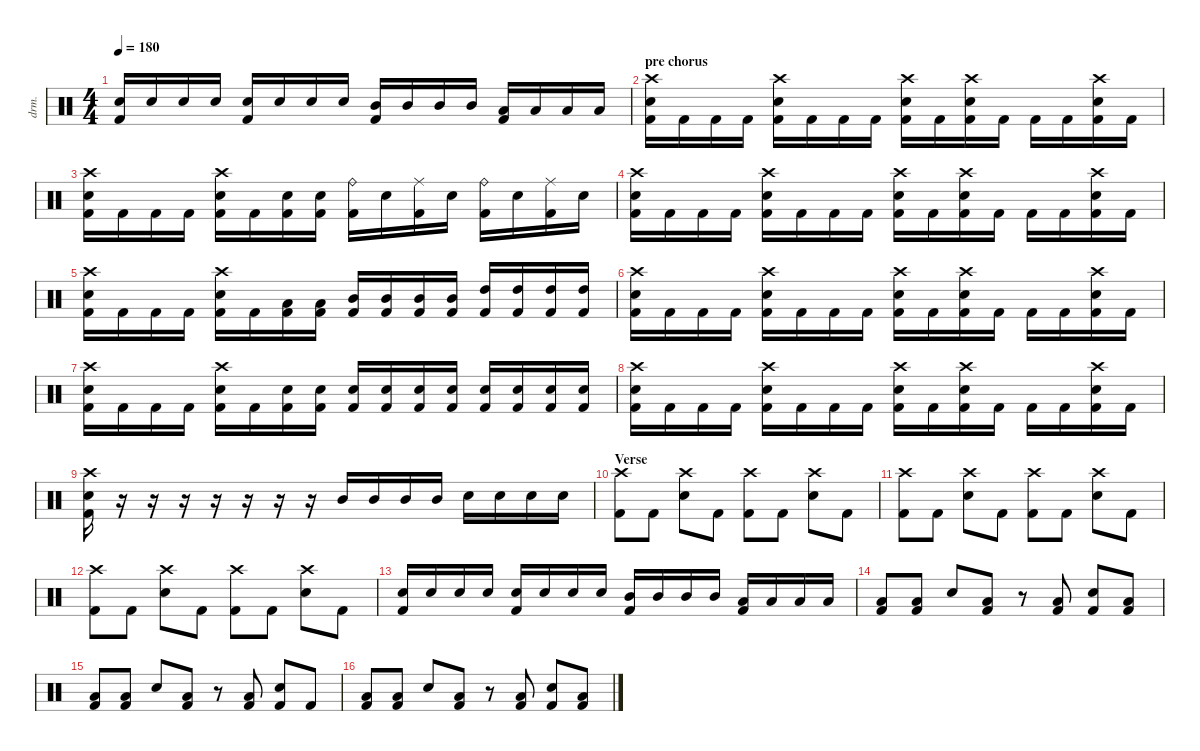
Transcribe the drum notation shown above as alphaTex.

\defaultSystemsLayout 4
\hideDynamics
\bracketExtendMode nobrackets
\otherSystemsTrackNameOrientation horizontal
\track ("Joosep" "drm.") {mute instrument percussion}
\staff {score}
\articulation defaults
\ts (4 4)
\tempo 180
\clef neutral
\ks c
("Snare (hit) 2" "Kick (hit) 2").16{dy f beam Up} "Snare (hit) 2".16{beam Up} "Snare (hit) 2".16{beam Up} "Snare (hit) 2".16{beam Up} ("Snare (hit) 2" "Kick (hit) 2").16{beam Up} "Snare (hit) 2".16{beam Up} "Snare (hit) 2".16{beam Up} "Snare (hit) 2".16{beam Up} ("Mid Tom (hit)" "Kick (hit) 2").16{beam Up} "Mid Tom (hit)".16{beam Up} "Mid Tom (hit)".16{beam Up} "Mid Tom (hit)".16{beam Up} ("Low Tom (hit)" "Kick (hit) 2").16{beam Up} "Low Tom (hit)".16{beam Up} "Low Tom (hit)".16{beam Up} "Low Tom (hit)".16{beam Up} |
\section ("" "pre chorus")
("Crash high (hit)" "Snare (hit) 2" "Kick (hit) 2").16{beam Down} "Kick (hit) 2".16{beam Down} "Kick (hit) 2".16{beam Down} "Kick (hit) 2".16{beam Down} ("Crash high (hit)" "Snare (hit) 2" "Kick (hit) 2").16{beam Down} "Kick (hit) 2".16{beam Down} "Kick (hit) 2".16{beam Down} "Kick (hit) 2".16{beam Down} ("Crash high (hit)" "Snare (hit) 2" "Kick (hit) 2").16{beam Down} "Kick (hit) 2".16{beam Down} ("Crash high (hit)" "Snare (hit) 2" "Kick (hit) 2").16{beam Down} "Kick (hit) 2".16{beam Down} "Kick (hit) 2".16{beam Down} "Kick (hit) 2".16{beam Down} ("Crash high (hit)" "Snare (hit) 2" "Kick (hit) 2").16{beam Down} "Kick (hit) 2".16{beam Down} |
("Crash high (hit)" "Snare (hit) 2" "Kick (hit) 2").16{beam Down} "Kick (hit) 2".16{beam Down} "Kick (hit) 2".16{beam Down} "Kick (hit) 2".16{beam Down} ("Crash high (hit)" "Snare (hit) 2" "Kick (hit) 2").16{beam Down} "Kick (hit) 2".16{beam Down} ("Snare (hit) 2" "Kick (hit) 2").16{beam Down} ("Snare (hit) 2" "Kick (hit) 2").16{beam Down} ("Ride (bell)" "Kick (hit) 2").16{beam Down} "Snare (hit) 2".16{beam Down} ("Kick (hit) 2" "Ride (middle)").16{beam Down} "Snare (hit) 2".16{beam Down} ("Kick (hit) 2" "Ride (bell)").16{beam Down} "Snare (hit) 2".16{beam Down} ("Kick (hit) 2" "Ride (middle)").16{beam Down} "Snare (hit) 2".16{beam Down} |
("Crash high (hit)" "Snare (hit) 2" "Kick (hit) 2").16{beam Down} "Kick (hit) 2".16{beam Down} "Kick (hit) 2".16{beam Down} "Kick (hit) 2".16{beam Down} ("Crash high (hit)" "Snare (hit) 2" "Kick (hit) 2").16{beam Down} "Kick (hit) 2".16{beam Down} "Kick (hit) 2".16{beam Down} "Kick (hit) 2".16{beam Down} ("Crash high (hit)" "Snare (hit) 2" "Kick (hit) 2").16{beam Down} "Kick (hit) 2".16{beam Down} ("Crash high (hit)" "Snare (hit) 2" "Kick (hit) 2").16{beam Down} "Kick (hit) 2".16{beam Down} "Kick (hit) 2".16{beam Down} "Kick (hit) 2".16{beam Down} ("Crash high (hit)" "Snare (hit) 2" "Kick (hit) 2").16{beam Down} "Kick (hit) 2".16{beam Down} |
("Crash high (hit)" "Snare (hit) 2" "Kick (hit) 2").16{beam Down} "Kick (hit) 2".16{beam Down} "Kick (hit) 2".16{beam Down} "Kick (hit) 2".16{beam Down} ("Crash high (hit)" "Snare (hit) 2" "Kick (hit) 2").16{beam Down} "Kick (hit) 2".16{beam Down} ("Low Tom (hit)" "Kick (hit) 2").16{beam Down} ("Low Tom (hit)" "Kick (hit) 2").16{beam Down} ("Mid Tom (hit)" "Kick (hit) 2").16{beam Up} ("Mid Tom (hit)" "Kick (hit) 2").16{beam Up} ("Mid Tom (hit)" "Kick (hit) 2").16{beam Up} ("Mid Tom (hit)" "Kick (hit) 2").16{beam Up} ("High Tom (hit)" "Kick (hit) 2").16{beam Up} ("High Tom (hit)" "Kick (hit) 2").16{beam Up} ("High Tom (hit)" "Kick (hit) 2").16{beam Up} ("High Tom (hit)" "Kick (hit) 2").16{beam Up} |
("Crash high (hit)" "Snare (hit) 2" "Kick (hit) 2").16{beam Down} "Kick (hit) 2".16{beam Down} "Kick (hit) 2".16{beam Down} "Kick (hit) 2".16{beam Down} ("Crash high (hit)" "Snare (hit) 2" "Kick (hit) 2").16{beam Down} "Kick (hit) 2".16{beam Down} "Kick (hit) 2".16{beam Down} "Kick (hit) 2".16{beam Down} ("Crash high (hit)" "Snare (hit) 2" "Kick (hit) 2").16{beam Down} "Kick (hit) 2".16{beam Down} ("Crash high (hit)" "Snare (hit) 2" "Kick (hit) 2").16{beam Down} "Kick (hit) 2".16{beam Down} "Kick (hit) 2".16{beam Down} "Kick (hit) 2".16{beam Down} ("Crash high (hit)" "Snare (hit) 2" "Kick (hit) 2").16{beam Down} "Kick (hit) 2".16{beam Down} |
("Crash high (hit)" "Snare (hit) 2" "Kick (hit) 2").16{beam Down} "Kick (hit) 2".16{beam Down} "Kick (hit) 2".16{beam Down} "Kick (hit) 2".16{beam Down} ("Crash high (hit)" "Snare (hit) 2" "Kick (hit) 2").16{beam Down} "Kick (hit) 2".16{beam Down} ("Snare (hit) 2" "Kick (hit) 2").16{beam Down} ("Snare (hit) 2" "Kick (hit) 2").16{beam Down} ("Snare (hit) 2" "Kick (hit) 2").16{beam Up} ("Snare (hit) 2" "Kick (hit) 2").16{beam Up} ("Snare (hit) 2" "Kick (hit) 2").16{beam Up} ("Snare (hit) 2" "Kick (hit) 2").16{beam Up} ("Snare (hit) 2" "Kick (hit) 2").16{beam Up} ("Snare (hit) 2" "Kick (hit) 2").16{beam Up} ("Snare (hit) 2" "Kick (hit) 2").16{beam Up} ("Snare (hit) 2" "Kick (hit) 2").16{beam Up} |
("Crash high (hit)" "Snare (hit) 2" "Kick (hit) 2").16{beam Down} "Kick (hit) 2".16{beam Down} "Kick (hit) 2".16{beam Down} "Kick (hit) 2".16{beam Down} ("Crash high (hit)" "Snare (hit) 2" "Kick (hit) 2").16{beam Down} "Kick (hit) 2".16{beam Down} "Kick (hit) 2".16{beam Down} "Kick (hit) 2".16{beam Down} ("Crash high (hit)" "Snare (hit) 2" "Kick (hit) 2").16{beam Down} "Kick (hit) 2".16{beam Down} ("Crash high (hit)" "Snare (hit) 2" "Kick (hit) 2").16{beam Down} "Kick (hit) 2".16{beam Down} "Kick (hit) 2".16{beam Down} "Kick (hit) 2".16{beam Down} ("Crash high (hit)" "Snare (hit) 2" "Kick (hit) 2").16{beam Down} "Kick (hit) 2".16{beam Down} |
("Crash high (hit)" "Snare (hit) 2" "Kick (hit) 2").16{beam Down} r.16{beam Down} r.16{beam Down} r.16{beam Down} r.16{beam Down} r.16{beam Down} r.16{beam Down} r.16{beam Down} "Mid Tom (hit)".16{beam Up} "Mid Tom (hit)".16{beam Up} "Mid Tom (hit)".16{beam Up} "Mid Tom (hit)".16{beam Up} "Snare (hit) 2".16{beam Down} "Snare (hit) 2".16{beam Down} "Snare (hit) 2".16{beam Down} "Snare (hit) 2".16{beam Down} |
\section ("" "Verse")
("Crash high (hit)" "Kick (hit) 2").8{beam Down} "Kick (hit) 2".8{beam Down} ("Crash high (hit)" "Snare (hit) 2").8{beam Down} "Kick (hit) 2".8{beam Down} ("Crash high (hit)" "Kick (hit) 2").8{beam Down} "Kick (hit) 2".8{beam Down} ("Crash high (hit)" "Snare (hit) 2").8{beam Down} "Kick (hit) 2".8{beam Down} |
("Crash high (hit)" "Kick (hit) 2").8{beam Down} "Kick (hit) 2".8{beam Down} ("Crash high (hit)" "Snare (hit) 2").8{beam Down} "Kick (hit) 2".8{beam Down} ("Crash high (hit)" "Kick (hit) 2").8{beam Down} "Kick (hit) 2".8{beam Down} ("Crash high (hit)" "Snare (hit) 2").8{beam Down} "Kick (hit) 2".8{beam Down} |
("Crash high (hit)" "Kick (hit) 2").8{beam Down} "Kick (hit) 2".8{beam Down} ("Crash high (hit)" "Snare (hit) 2").8{beam Down} "Kick (hit) 2".8{beam Down} ("Crash high (hit)" "Kick (hit) 2").8{beam Down} "Kick (hit) 2".8{beam Down} ("Crash high (hit)" "Snare (hit) 2").8{beam Down} "Kick (hit) 2".8{beam Down} |
("Snare (hit) 2" "Kick (hit) 2").16{beam Up} "Snare (hit) 2".16{beam Up} "Snare (hit) 2".16{beam Up} "Snare (hit) 2".16{beam Up} ("Snare (hit) 2" "Kick (hit) 2").16{beam Up} "Snare (hit) 2".16{beam Up} "Snare (hit) 2".16{beam Up} "Snare (hit) 2".16{beam Up} ("Mid Tom (hit)" "Kick (hit) 2").16{beam Up} "Mid Tom (hit)".16{beam Up} "Mid Tom (hit)".16{beam Up} "Mid Tom (hit)".16{beam Up} ("Low Tom (hit)" "Kick (hit) 2").16{beam Up} "Low Tom (hit)".16{beam Up} "Low Tom (hit)".16{beam Up} "Low Tom (hit)".16{beam Up} |
\section ("" "")
("Kick (hit) 2" "Low Tom (hit)").8{beam Up} ("Kick (hit) 2" "Low Tom (hit)").8{beam Up} "Snare (hit) 2".8{beam Up} ("Kick (hit) 2" "Low Tom (hit)").8{beam Up} r.8{beam Up} ("Kick (hit) 2" "Low Tom (hit)").8{beam Up} ("Snare (hit) 2" "Kick (hit) 2").8{beam Up} ("Kick (hit) 2" "Low Tom (hit)").8{beam Up} |
("Kick (hit) 2" "Low Tom (hit)").8{beam Up} ("Kick (hit) 2" "Low Tom (hit)").8{beam Up} "Snare (hit) 2".8{beam Up} ("Kick (hit) 2" "Low Tom (hit)").8{beam Up} r.8{beam Up} ("Kick (hit) 2" "Low Tom (hit)").8{beam Up} ("Snare (hit) 2" "Kick (hit) 2").8{beam Up} "Kick (hit) 2".8{beam Up} |
("Kick (hit) 2" "Low Tom (hit)").8{beam Up} ("Kick (hit) 2" "Low Tom (hit)").8{beam Up} "Snare (hit) 2".8{beam Up} ("Kick (hit) 2" "Low Tom (hit)").8{beam Up} r.8{beam Up} ("Kick (hit) 2" "Low Tom (hit)").8{beam Up} ("Snare (hit) 2" "Kick (hit) 2").8{beam Up} ("Kick (hit) 2" "Low Tom (hit)").8{beam Up}
